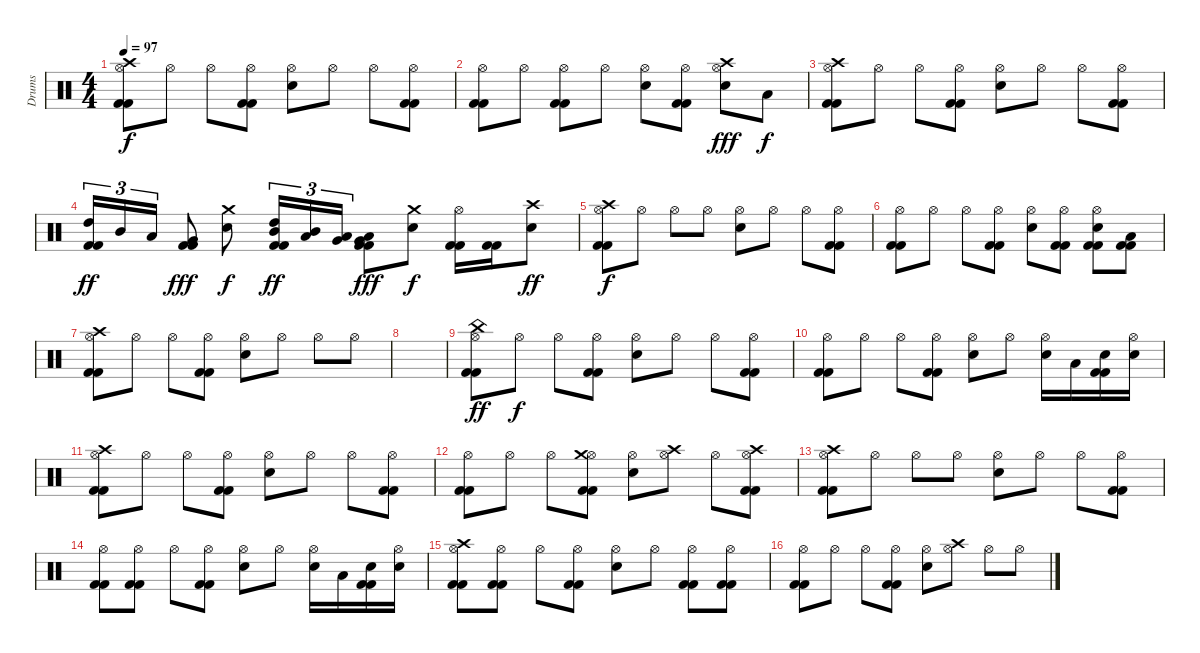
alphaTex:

\track ("Drums" "Drums") {instrument percussion}
\staff {score}
\articulation defaults
\ts (4 4)
\tempo 97
\clef neutral
\ks c
("Hi-Hat (open)" "Crash high (hit)" "Kick (hit) 2" "Kick (hit) 2").8{dy f} "Hi-Hat (open)".8 "Hi-Hat (open)".8 ("Hi-Hat (open)" "Kick (hit) 2" "Kick (hit) 2").8 ("Hi-Hat (open)" "Electric Snare (hit)").8 "Hi-Hat (open)".8 "Hi-Hat (open)".8 ("Hi-Hat (open)" "Kick (hit) 2" "Kick (hit) 2").8 |
("Hi-Hat (open)" "Kick (hit) 2" "Kick (hit) 2").8 "Hi-Hat (open)".8 ("Hi-Hat (open)" "Kick (hit) 2" "Kick (hit) 2").8 "Hi-Hat (open)".8 ("Hi-Hat (open)" "Electric Snare (hit)").8 ("Hi-Hat (open)" "Kick (hit) 2" "Kick (hit) 2").8 ("Crash high (hit)" "Hi-Hat (open)" "Electric Snare (hit)").8{dy fff} "Low Tom (hit)".8{dy f} |
("Hi-Hat (open)" "Crash high (hit)" "Kick (hit) 2" "Kick (hit) 2").8 "Hi-Hat (open)".8 "Hi-Hat (open)".8 ("Hi-Hat (open)" "Kick (hit) 2" "Kick (hit) 2").8 ("Hi-Hat (open)" "Electric Snare (hit)").8 "Hi-Hat (open)".8 "Hi-Hat (open)".8 ("Hi-Hat (open)" "Kick (hit) 2" "Kick (hit) 2").8 |
("High Tom (hit)" "Kick (hit) 2" "Kick (hit) 2").16{tu (3 2) dy ff} "Mid Tom (hit)".16{tu (3 2)} "Low Tom (hit)".16{tu (3 2)} ("Very Low Tom (hit)" "Kick (hit) 2" "Kick (hit) 2").8{dy fff} ("Crash medium (hit)" "Electric Snare (hit)").8{dy f} ("High Tom (hit)" "Mid Tom (hit)" "Kick (hit) 2" "Kick (hit) 2").16{tu (3 2) dy ff} ("Mid Tom (hit)" "Low Tom (hit)").16{tu (3 2)} ("Low Tom (hit)" "Very Low Tom (hit)").16{tu (3 2)} ("Very Low Tom (hit)" "Low Floor Tom (hit)" "Kick (hit) 2" "Kick (hit) 2").8{dy fff} ("Crash medium (hit)" "Electric Snare (hit)").8{dy f} ("Hi-Hat (open)" "Kick (hit) 2" "Kick (hit) 2").16 ("Kick (hit) 2" "Kick (hit) 2").16 ("Crash high (hit)" "Electric Snare (hit)").8{dy ff} |
("Hi-Hat (open)" "Crash high (hit)" "Kick (hit) 2" "Kick (hit) 2").8{dy f} "Hi-Hat (open)".8 "Hi-Hat (open)".8 "Hi-Hat (open)".8 ("Hi-Hat (open)" "Electric Snare (hit)").8 "Hi-Hat (open)".8 "Hi-Hat (open)".8 ("Hi-Hat (open)" "Kick (hit) 2" "Kick (hit) 2").8 |
("Hi-Hat (open)" "Kick (hit) 2" "Kick (hit) 2").8 "Hi-Hat (open)".8 "Hi-Hat (open)".8 ("Hi-Hat (open)" "Kick (hit) 2" "Kick (hit) 2").8 ("Hi-Hat (open)" "Electric Snare (hit)").8 ("Hi-Hat (open)" "Kick (hit) 2" "Kick (hit) 2").8 ("Hi-Hat (open)" "Electric Snare (hit)" "Kick (hit) 2" "Kick (hit) 2").8 ("Low Tom (hit)" "Kick (hit) 2" "Kick (hit) 2").8 |
("Hi-Hat (open)" "Crash high (hit)" "Kick (hit) 2" "Kick (hit) 2").8 "Hi-Hat (open)".8 "Hi-Hat (open)".8 ("Hi-Hat (open)" "Kick (hit) 2" "Kick (hit) 2").8 ("Hi-Hat (open)" "Electric Snare (hit)").8 "Hi-Hat (open)".8 "Hi-Hat (open)".8 "Hi-Hat (open)".8 |
|
("China (hit)" "Hi-Hat (open)" "Kick (hit) 2" "Kick (hit) 2").8{dy ff} "Hi-Hat (open)".8{dy f} "Hi-Hat (open)".8 ("Hi-Hat (open)" "Kick (hit) 2" "Kick (hit) 2").8 ("Hi-Hat (open)" "Electric Snare (hit)").8 "Hi-Hat (open)".8 "Hi-Hat (open)".8 ("Hi-Hat (open)" "Kick (hit) 2" "Kick (hit) 2").8 |
("Hi-Hat (open)" "Kick (hit) 2" "Kick (hit) 2").8 "Hi-Hat (open)".8 "Hi-Hat (open)".8 ("Hi-Hat (open)" "Kick (hit) 2" "Kick (hit) 2").8 ("Hi-Hat (open)" "Electric Snare (hit)").8 "Hi-Hat (open)".8 ("Hi-Hat (open)" "Electric Snare (hit)").16 "Low Tom (hit)".16 ("Electric Snare (hit)" "Kick (hit) 2" "Kick (hit) 2").16 ("Hi-Hat (open)" "Electric Snare (hit)").16 |
("Hi-Hat (open)" "Crash high (hit)" "Kick (hit) 2" "Kick (hit) 2").8 "Hi-Hat (open)".8 "Hi-Hat (open)".8 ("Hi-Hat (open)" "Kick (hit) 2" "Kick (hit) 2").8 ("Hi-Hat (open)" "Electric Snare (hit)").8 "Hi-Hat (open)".8 "Hi-Hat (open)".8 ("Hi-Hat (open)" "Kick (hit) 2" "Kick (hit) 2").8 |
("Hi-Hat (open)" "Kick (hit) 2" "Kick (hit) 2").8 "Hi-Hat (open)".8 "Hi-Hat (open)".8 ("Hi-Hat (open)" "Crash medium (hit)" "Kick (hit) 2" "Kick (hit) 2").8 ("Hi-Hat (open)" "Electric Snare (hit)").8 ("Hi-Hat (open)" "Crash high (hit)").8 "Hi-Hat (open)".8 ("Hi-Hat (open)" "Crash high (hit)" "Kick (hit) 2" "Kick (hit) 2").8 |
("Hi-Hat (open)" "Crash high (hit)" "Kick (hit) 2" "Kick (hit) 2").8 "Hi-Hat (open)".8 "Hi-Hat (open)".8 "Hi-Hat (open)".8 ("Hi-Hat (open)" "Electric Snare (hit)").8 "Hi-Hat (open)".8 "Hi-Hat (open)".8 ("Hi-Hat (open)" "Kick (hit) 2" "Kick (hit) 2").8 |
("Hi-Hat (open)" "Kick (hit) 2" "Kick (hit) 2").8 ("Hi-Hat (open)" "Kick (hit) 2" "Kick (hit) 2").8 "Hi-Hat (open)".8 ("Hi-Hat (open)" "Kick (hit) 2" "Kick (hit) 2").8 ("Hi-Hat (open)" "Electric Snare (hit)").8 "Hi-Hat (open)".8 ("Hi-Hat (open)" "Electric Snare (hit)").16 "Low Tom (hit)".16 ("Electric Snare (hit)" "Kick (hit) 2" "Kick (hit) 2").16 ("Hi-Hat (open)" "Electric Snare (hit)").16 |
("Hi-Hat (open)" "Crash high (hit)" "Kick (hit) 2" "Kick (hit) 2").8 ("Hi-Hat (open)" "Kick (hit) 2" "Kick (hit) 2").8 "Hi-Hat (open)".8 ("Hi-Hat (open)" "Kick (hit) 2" "Kick (hit) 2").8 ("Hi-Hat (open)" "Electric Snare (hit)").8 "Hi-Hat (open)".8 ("Hi-Hat (open)" "Kick (hit) 2" "Kick (hit) 2").8 ("Hi-Hat (open)" "Kick (hit) 2" "Kick (hit) 2").8 |
("Hi-Hat (open)" "Kick (hit) 2" "Kick (hit) 2").8 "Hi-Hat (open)".8 "Hi-Hat (open)".8 ("Hi-Hat (open)" "Kick (hit) 2" "Kick (hit) 2").8 ("Hi-Hat (open)" "Electric Snare (hit)").8 ("Hi-Hat (open)" "Crash high (hit)").8 "Hi-Hat (open)".8 "Hi-Hat (open)".8
